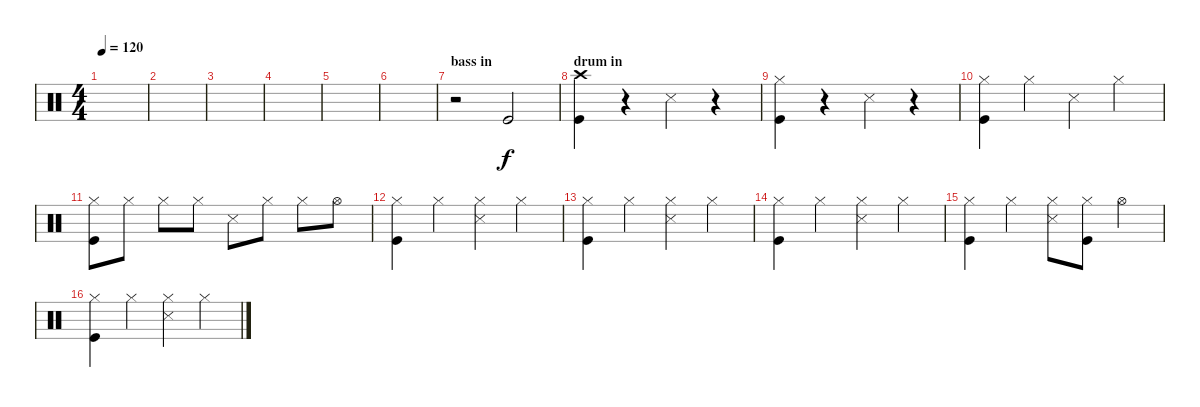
\track "" {instrument percussion}
\staff {score}
\articulation defaults
\ts (4 4)
\tempo 120
\clef neutral
\ks c
|
|
|
|
|
|
\section ("" "bass in")
r.2 "Kick (hit)".2 |
\section ("" "drum in")
("Crash high (hit)" "Kick (hit)").4{dy f} r.4 "Snare (side stick) 3".4 r.4 |
("Hi-Hat (closed)" "Kick (hit)").4 r.4 "Snare (side stick) 3".4 r.4 |
("Hi-Hat (closed)" "Kick (hit)").4 "Hi-Hat (closed)".4 "Snare (side stick) 3".4 "Hi-Hat (closed)".4 |
("Hi-Hat (closed)" "Kick (hit)").8 "Hi-Hat (closed)".8 "Hi-Hat (closed)".8 "Hi-Hat (closed)".8 "Snare (side stick) 3".8 "Hi-Hat (closed)".8 "Hi-Hat (closed)".8 "Hi-Hat (open)".8 |
("Hi-Hat (closed)" "Kick (hit)").4 "Hi-Hat (closed)".4 ("Hi-Hat (closed)" "Snare (side stick) 3").4 "Hi-Hat (closed)".4 |
("Hi-Hat (closed)" "Kick (hit)").4 "Hi-Hat (closed)".4 ("Hi-Hat (closed)" "Snare (side stick) 3").4 "Hi-Hat (closed)".4 |
("Hi-Hat (closed)" "Kick (hit)").4 "Hi-Hat (closed)".4 ("Hi-Hat (closed)" "Snare (side stick) 3").4 "Hi-Hat (closed)".4 |
("Hi-Hat (closed)" "Kick (hit)").4 "Hi-Hat (closed)".4 ("Hi-Hat (closed)" "Snare (side stick) 3").8 ("Hi-Hat (closed)" "Kick (hit)").8 "Hi-Hat (open)".4 |
("Hi-Hat (closed)" "Kick (hit)").4 "Hi-Hat (closed)".4 ("Hi-Hat (closed)" "Snare (side stick) 3").4 "Hi-Hat (closed)".4
